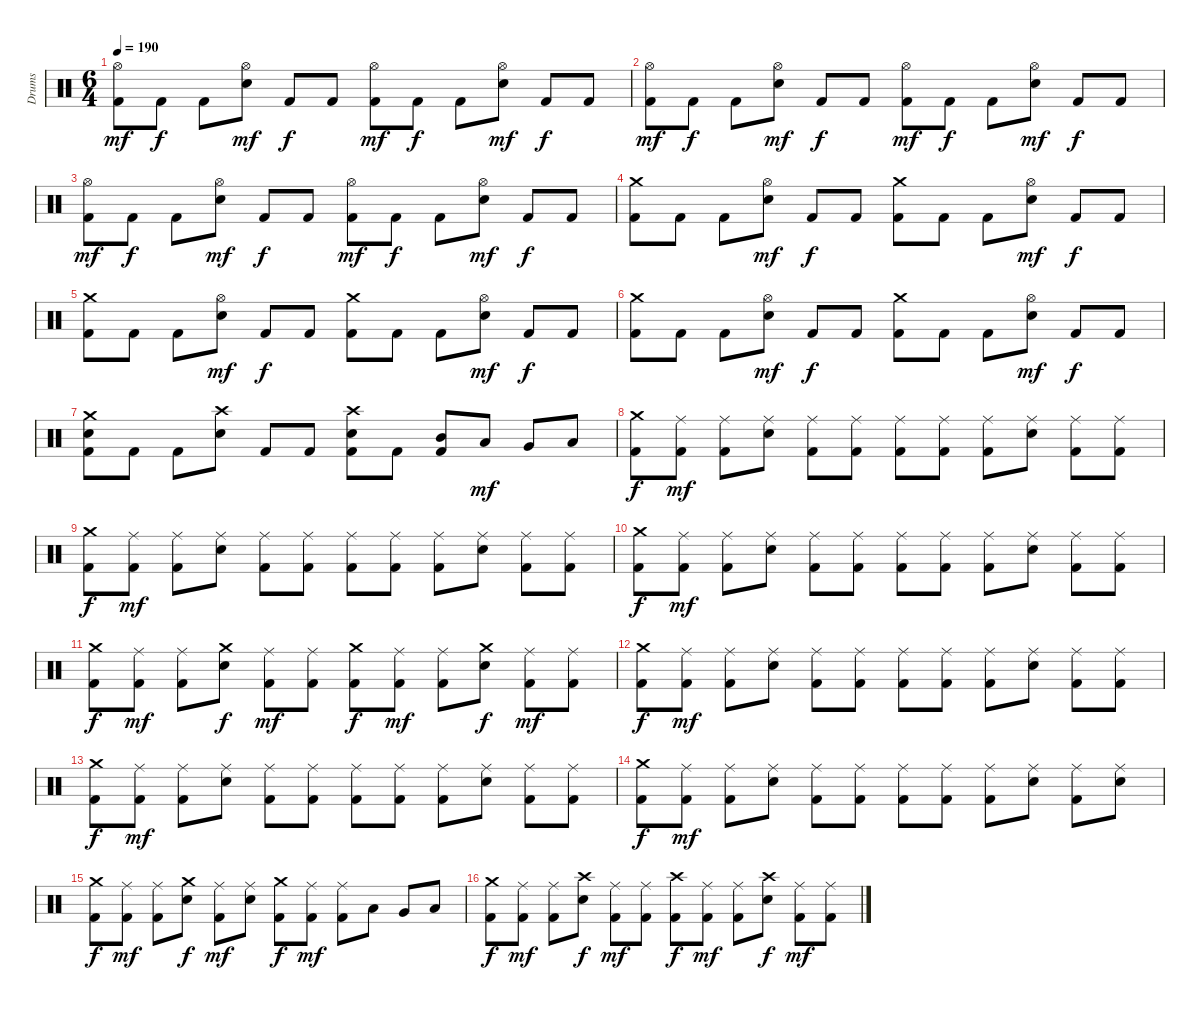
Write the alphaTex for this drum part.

\track ("Drums" "Drums") {instrument percussion}
\staff {score}
\articulation defaults
\ts (6 4)
\tempo 190
\clef neutral
\ks c
("Hi-Hat (open)" "Kick (hit) 2").8{dy mf} "Kick (hit) 2".8{dy f} "Kick (hit) 2".8 ("Hi-Hat (open)" "Snare (hit) 2").8{dy mf} "Kick (hit) 2".8{dy f} "Kick (hit) 2".8 ("Hi-Hat (open)" "Kick (hit) 2").8{dy mf} "Kick (hit) 2".8{dy f} "Kick (hit) 2".8 ("Hi-Hat (open)" "Snare (hit) 2").8{dy mf} "Kick (hit) 2".8{dy f} "Kick (hit) 2".8 |
("Hi-Hat (open)" "Kick (hit) 2").8{dy mf} "Kick (hit) 2".8{dy f} "Kick (hit) 2".8 ("Hi-Hat (open)" "Snare (hit) 2").8{dy mf} "Kick (hit) 2".8{dy f} "Kick (hit) 2".8 ("Hi-Hat (open)" "Kick (hit) 2").8{dy mf} "Kick (hit) 2".8{dy f} "Kick (hit) 2".8 ("Hi-Hat (open)" "Snare (hit) 2").8{dy mf} "Kick (hit) 2".8{dy f} "Kick (hit) 2".8 |
("Hi-Hat (open)" "Kick (hit) 2").8{dy mf} "Kick (hit) 2".8{dy f} "Kick (hit) 2".8 ("Hi-Hat (open)" "Snare (hit) 2").8{dy mf} "Kick (hit) 2".8{dy f} "Kick (hit) 2".8 ("Hi-Hat (open)" "Kick (hit) 2").8{dy mf} "Kick (hit) 2".8{dy f} "Kick (hit) 2".8 ("Hi-Hat (open)" "Snare (hit) 2").8{dy mf} "Kick (hit) 2".8{dy f} "Kick (hit) 2".8 |
("Crash medium (hit)" "Kick (hit) 2").8 "Kick (hit) 2".8 "Kick (hit) 2".8 ("Hi-Hat (open)" "Snare (hit) 2").8{dy mf} "Kick (hit) 2".8{dy f} "Kick (hit) 2".8 ("Crash medium (hit)" "Kick (hit) 2").8 "Kick (hit) 2".8 "Kick (hit) 2".8 ("Hi-Hat (open)" "Snare (hit) 2").8{dy mf} "Kick (hit) 2".8{dy f} "Kick (hit) 2".8 |
("Crash medium (hit)" "Kick (hit) 2").8 "Kick (hit) 2".8 "Kick (hit) 2".8 ("Hi-Hat (open)" "Snare (hit) 2").8{dy mf} "Kick (hit) 2".8{dy f} "Kick (hit) 2".8 ("Crash medium (hit)" "Kick (hit) 2").8 "Kick (hit) 2".8 "Kick (hit) 2".8 ("Hi-Hat (open)" "Snare (hit) 2").8{dy mf} "Kick (hit) 2".8{dy f} "Kick (hit) 2".8 |
("Crash medium (hit)" "Kick (hit) 2").8 "Kick (hit) 2".8 "Kick (hit) 2".8 ("Hi-Hat (open)" "Snare (hit) 2").8{dy mf} "Kick (hit) 2".8{dy f} "Kick (hit) 2".8 ("Crash medium (hit)" "Kick (hit) 2").8 "Kick (hit) 2".8 "Kick (hit) 2".8 ("Hi-Hat (open)" "Snare (hit) 2").8{dy mf} "Kick (hit) 2".8{dy f} "Kick (hit) 2".8 |
("Crash medium (hit)" "Snare (hit) 2" "Kick (hit) 2").8 "Kick (hit) 2".8 "Kick (hit) 2".8 ("Crash high (hit)" "Snare (hit) 2").8 "Kick (hit) 2".8 "Kick (hit) 2".8 ("Crash high (hit)" "Snare (hit) 2" "Kick (hit) 2").8 "Kick (hit) 2".8 ("Mid Tom (hit)" "Kick (hit) 2").8 "Low Tom (hit)".8{dy mf} "Very Low Tom (hit)".8 "Low Floor Tom (hit)".8 |
("Crash medium (hit)" "Kick (hit) 2").8{dy f} ("Ride (middle)" "Kick (hit) 2").8{dy mf} ("Ride (middle)" "Kick (hit) 2").8 ("Ride (middle)" "Snare (hit) 2").8 ("Ride (middle)" "Kick (hit) 2").8 ("Ride (middle)" "Kick (hit) 2").8 ("Ride (middle)" "Kick (hit) 2").8 ("Ride (middle)" "Kick (hit) 2").8 ("Ride (middle)" "Kick (hit) 2").8 ("Ride (middle)" "Snare (hit) 2").8 ("Ride (middle)" "Kick (hit) 2").8 ("Ride (middle)" "Kick (hit) 2").8 |
("Crash medium (hit)" "Kick (hit) 2").8{dy f} ("Ride (middle)" "Kick (hit) 2").8{dy mf} ("Ride (middle)" "Kick (hit) 2").8 ("Ride (middle)" "Snare (hit) 2").8 ("Ride (middle)" "Kick (hit) 2").8 ("Ride (middle)" "Kick (hit) 2").8 ("Ride (middle)" "Kick (hit) 2").8 ("Ride (middle)" "Kick (hit) 2").8 ("Ride (middle)" "Kick (hit) 2").8 ("Ride (middle)" "Snare (hit) 2").8 ("Ride (middle)" "Kick (hit) 2").8 ("Ride (middle)" "Kick (hit) 2").8 |
("Crash medium (hit)" "Kick (hit) 2").8{dy f} ("Ride (middle)" "Kick (hit) 2").8{dy mf} ("Ride (middle)" "Kick (hit) 2").8 ("Ride (middle)" "Snare (hit) 2").8 ("Ride (middle)" "Kick (hit) 2").8 ("Ride (middle)" "Kick (hit) 2").8 ("Ride (middle)" "Kick (hit) 2").8 ("Ride (middle)" "Kick (hit) 2").8 ("Ride (middle)" "Kick (hit) 2").8 ("Ride (middle)" "Snare (hit) 2").8 ("Ride (middle)" "Kick (hit) 2").8 ("Ride (middle)" "Kick (hit) 2").8 |
("Crash medium (hit)" "Kick (hit) 2").8{dy f} ("Ride (middle)" "Kick (hit) 2").8{dy mf} ("Ride (middle)" "Kick (hit) 2").8 ("Crash medium (hit)" "Snare (hit) 2").8{dy f} ("Ride (middle)" "Kick (hit) 2").8{dy mf} ("Ride (middle)" "Kick (hit) 2").8 ("Crash medium (hit)" "Kick (hit) 2").8{dy f} ("Ride (middle)" "Kick (hit) 2").8{dy mf} ("Ride (middle)" "Kick (hit) 2").8 ("Crash medium (hit)" "Snare (hit) 2").8{dy f} ("Ride (middle)" "Kick (hit) 2").8{dy mf} ("Ride (middle)" "Kick (hit) 2").8 |
("Crash medium (hit)" "Kick (hit) 2").8{dy f} ("Ride (middle)" "Kick (hit) 2").8{dy mf} ("Ride (middle)" "Kick (hit) 2").8 ("Ride (middle)" "Snare (hit) 2").8 ("Ride (middle)" "Kick (hit) 2").8 ("Ride (middle)" "Kick (hit) 2").8 ("Ride (middle)" "Kick (hit) 2").8 ("Ride (middle)" "Kick (hit) 2").8 ("Ride (middle)" "Kick (hit) 2").8 ("Ride (middle)" "Snare (hit) 2").8 ("Ride (middle)" "Kick (hit) 2").8 ("Ride (middle)" "Kick (hit) 2").8 |
("Crash medium (hit)" "Kick (hit) 2").8{dy f} ("Ride (middle)" "Kick (hit) 2").8{dy mf} ("Ride (middle)" "Kick (hit) 2").8 ("Ride (middle)" "Snare (hit) 2").8 ("Ride (middle)" "Kick (hit) 2").8 ("Ride (middle)" "Kick (hit) 2").8 ("Ride (middle)" "Kick (hit) 2").8 ("Ride (middle)" "Kick (hit) 2").8 ("Ride (middle)" "Kick (hit) 2").8 ("Ride (middle)" "Snare (hit) 2").8 ("Ride (middle)" "Kick (hit) 2").8 ("Ride (middle)" "Kick (hit) 2").8 |
("Crash medium (hit)" "Kick (hit) 2").8{dy f} ("Ride (middle)" "Kick (hit) 2").8{dy mf} ("Ride (middle)" "Kick (hit) 2").8 ("Ride (middle)" "Snare (hit) 2").8 ("Ride (middle)" "Kick (hit) 2").8 ("Ride (middle)" "Kick (hit) 2").8 ("Ride (middle)" "Kick (hit) 2").8 ("Ride (middle)" "Kick (hit) 2").8 ("Ride (middle)" "Kick (hit) 2").8 ("Ride (middle)" "Snare (hit) 2").8 ("Ride (middle)" "Kick (hit) 2").8 ("Ride (middle)" "Snare (hit) 2").8 |
("Crash medium (hit)" "Kick (hit) 2").8{dy f} ("Ride (middle)" "Kick (hit) 2").8{dy mf} ("Ride (middle)" "Kick (hit) 2").8 ("Crash medium (hit)" "Snare (hit) 2").8{dy f} ("Ride (middle)" "Kick (hit) 2").8{dy mf} ("Ride (middle)" "Snare (hit) 2").8 ("Crash medium (hit)" "Kick (hit) 2").8{dy f} ("Ride (middle)" "Kick (hit) 2").8{dy mf} ("Ride (middle)" "Kick (hit) 2").8 "Low Tom (hit)".8 "Very Low Tom (hit)".8 "Low Floor Tom (hit)".8 |
("Crash medium (hit)" "Kick (hit) 2").8{dy f} ("Ride (middle)" "Kick (hit) 2").8{dy mf} ("Ride (middle)" "Kick (hit) 2").8 ("Crash high (hit)" "Snare (hit) 2").8{dy f} ("Ride (middle)" "Kick (hit) 2").8{dy mf} ("Ride (middle)" "Kick (hit) 2").8 ("Crash high (hit)" "Kick (hit) 2").8{dy f} ("Ride (middle)" "Kick (hit) 2").8{dy mf} ("Ride (middle)" "Kick (hit) 2").8 ("Crash high (hit)" "Snare (hit) 2").8{dy f} ("Ride (middle)" "Kick (hit) 2").8{dy mf} ("Ride (middle)" "Kick (hit) 2").8
